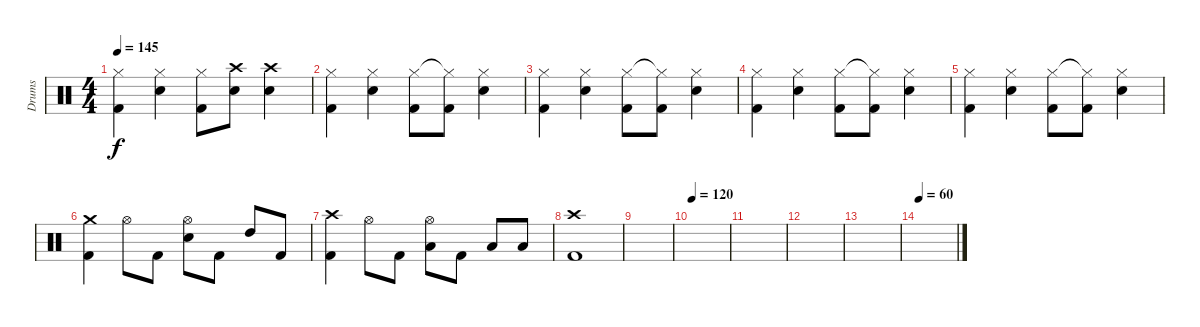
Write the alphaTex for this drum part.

\track ("Drums" "Drums") {instrument percussion}
\staff {score}
\articulation defaults
\ts (4 4)
\tempo 145
\clef neutral
\ks c
("Hi-Hat (closed)" "Kick (hit) 2").4{dy f} ("Hi-Hat (closed)" "Electric Snare (hit)").4 ("Hi-Hat (closed)" "Kick (hit) 2").8 ("Crash high (hit)" "Electric Snare (hit)").8 ("Crash high (hit)" "Electric Snare (hit)").4 |
("Hi-Hat (closed)" "Kick (hit) 2").4 ("Hi-Hat (closed)" "Electric Snare (hit)").4 ("Hi-Hat (closed)" "Kick (hit) 2").8 ("Hi-Hat (closed)"{t} "Kick (hit) 2").8 ("Hi-Hat (closed)" "Electric Snare (hit)").4 |
("Hi-Hat (closed)" "Kick (hit) 2").4 ("Hi-Hat (closed)" "Electric Snare (hit)").4 ("Hi-Hat (closed)" "Kick (hit) 2").8 ("Hi-Hat (closed)"{t} "Kick (hit) 2").8 ("Hi-Hat (closed)" "Electric Snare (hit)").4 |
("Hi-Hat (closed)" "Kick (hit) 2").4 ("Hi-Hat (closed)" "Electric Snare (hit)").4 ("Hi-Hat (closed)" "Kick (hit) 2").8 ("Hi-Hat (closed)"{t} "Kick (hit) 2").8 ("Hi-Hat (closed)" "Electric Snare (hit)").4 |
("Hi-Hat (closed)" "Kick (hit) 2").4 ("Hi-Hat (closed)" "Electric Snare (hit)").4 ("Hi-Hat (closed)" "Kick (hit) 2").8 ("Hi-Hat (closed)"{t} "Kick (hit) 2").8 ("Hi-Hat (closed)" "Electric Snare (hit)").4 |
("Crash medium (hit)" "Kick (hit) 2").4 "Hi-Hat (open)".8 "Kick (hit) 2".8 ("Hi-Hat (open)" "Electric Snare (hit)").8 "Kick (hit) 2".8 "High Tom (hit)".8 "Kick (hit) 2".8 |
("Crash high (hit)" "Kick (hit) 2").4 "Hi-Hat (open)".8 "Kick (hit) 2".8 ("Hi-Hat (open)" "Low Tom (hit)").8 "Kick (hit) 2".8 "Low Floor Tom (hit)".8 "Low Floor Tom (hit)".8 |
("Crash high (hit)" "Kick (hit) 2").1 |
|
\tempo 120
|
|
|
|
\tempo 60
